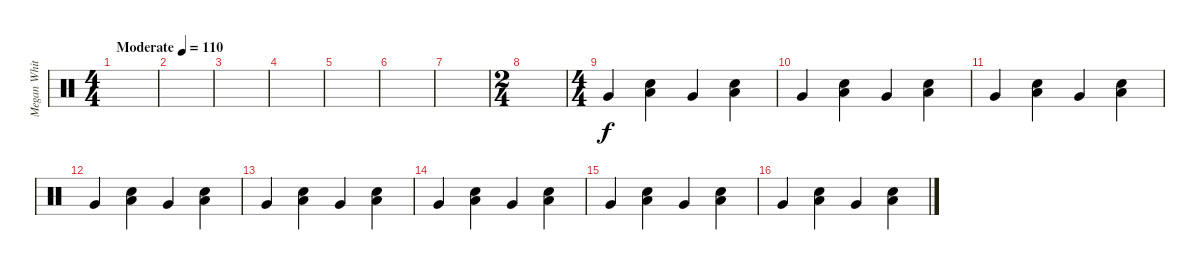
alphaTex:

\track ("Megan White (drums)" "Megan Whit") {instrument percussion}
\staff {score}
\articulation defaults
\ts (4 4)
\tempo (110 "Moderate")
\clef neutral
\ks c
|
|
|
|
|
|
|
\ts (2 4)
|
\ts (4 4)
"Very Low Tom (hit)".4 ("Electric Snare (hit)" "Low Floor Tom (hit)").4 "Very Low Tom (hit)".4 ("Electric Snare (hit)" "Low Floor Tom (hit)").4 |
"Very Low Tom (hit)".4 ("Electric Snare (hit)" "Low Floor Tom (hit)").4 "Very Low Tom (hit)".4 ("Electric Snare (hit)" "Low Floor Tom (hit)").4 |
"Very Low Tom (hit)".4 ("Electric Snare (hit)" "Low Floor Tom (hit)").4 "Very Low Tom (hit)".4 ("Electric Snare (hit)" "Low Floor Tom (hit)").4 |
"Very Low Tom (hit)".4 ("Electric Snare (hit)" "Low Floor Tom (hit)").4 "Very Low Tom (hit)".4 ("Electric Snare (hit)" "Low Floor Tom (hit)").4 |
"Very Low Tom (hit)".4 ("Electric Snare (hit)" "Low Floor Tom (hit)").4 "Very Low Tom (hit)".4 ("Electric Snare (hit)" "Low Floor Tom (hit)").4 |
"Very Low Tom (hit)".4 ("Electric Snare (hit)" "Low Floor Tom (hit)").4 "Very Low Tom (hit)".4 ("Electric Snare (hit)" "Low Floor Tom (hit)").4 |
"Very Low Tom (hit)".4 ("Electric Snare (hit)" "Low Floor Tom (hit)").4 "Very Low Tom (hit)".4 ("Electric Snare (hit)" "Low Floor Tom (hit)").4 |
"Very Low Tom (hit)".4 ("Electric Snare (hit)" "Low Floor Tom (hit)").4 "Very Low Tom (hit)".4 ("Electric Snare (hit)" "Low Floor Tom (hit)").4
